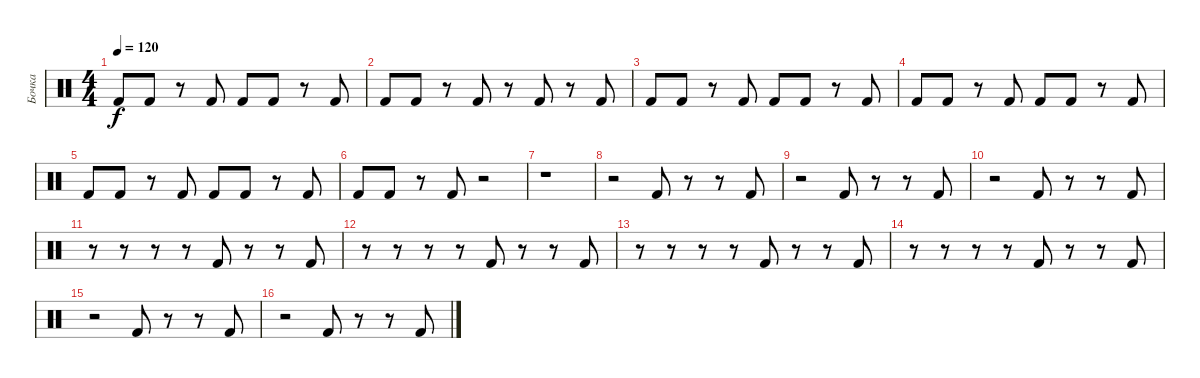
\track ("Бочка" "Бочка") {instrument percussion}
\staff {score}
\articulation defaults
\ts (4 4)
\tempo 120
\clef neutral
\ks c "Kick (hit) 2".8{dy f} "Kick (hit) 2".8
r.8 "Kick (hit) 2".8 "Kick (hit) 2".8 "Kick (hit) 2".8 r.8 "Kick (hit) 2".8 |
"Kick (hit) 2".8 "Kick (hit) 2".8 r.8 "Kick (hit) 2".8 r.8 "Kick (hit) 2".8 r.8 "Kick (hit) 2".8 |
"Kick (hit) 2".8 "Kick (hit) 2".8 r.8 "Kick (hit) 2".8 "Kick (hit) 2".8 "Kick (hit) 2".8 r.8 "Kick (hit) 2".8 |
"Kick (hit) 2".8 "Kick (hit) 2".8 r.8 "Kick (hit) 2".8 "Kick (hit) 2".8 "Kick (hit) 2".8 r.8 "Kick (hit) 2".8 |
"Kick (hit) 2".8 "Kick (hit) 2".8 r.8 "Kick (hit) 2".8 "Kick (hit) 2".8 "Kick (hit) 2".8 r.8 "Kick (hit) 2".8 |
"Kick (hit) 2".8 "Kick (hit) 2".8 r.8 "Kick (hit) 2".8 r.2 |
r.1 |
r.2 "Kick (hit) 2".8 r.8 r.8 "Kick (hit) 2".8 |
r.2 "Kick (hit) 2".8 r.8 r.8 "Kick (hit) 2".8 |
r.2 "Kick (hit) 2".8 r.8 r.8 "Kick (hit) 2".8 |
r.8 r.8 r.8 r.8 "Kick (hit) 2".8 r.8 r.8 "Kick (hit) 2".8 |
r.8 r.8 r.8 r.8 "Kick (hit) 2".8 r.8 r.8 "Kick (hit) 2".8 |
r.8 r.8 r.8 r.8 "Kick (hit) 2".8 r.8 r.8 "Kick (hit) 2".8 |
r.8 r.8 r.8 r.8 "Kick (hit) 2".8 r.8 r.8 "Kick (hit) 2".8 |
r.2 "Kick (hit) 2".8 r.8 r.8 "Kick (hit) 2".8 |
r.2 "Kick (hit) 2".8 r.8 r.8 "Kick (hit) 2".8
